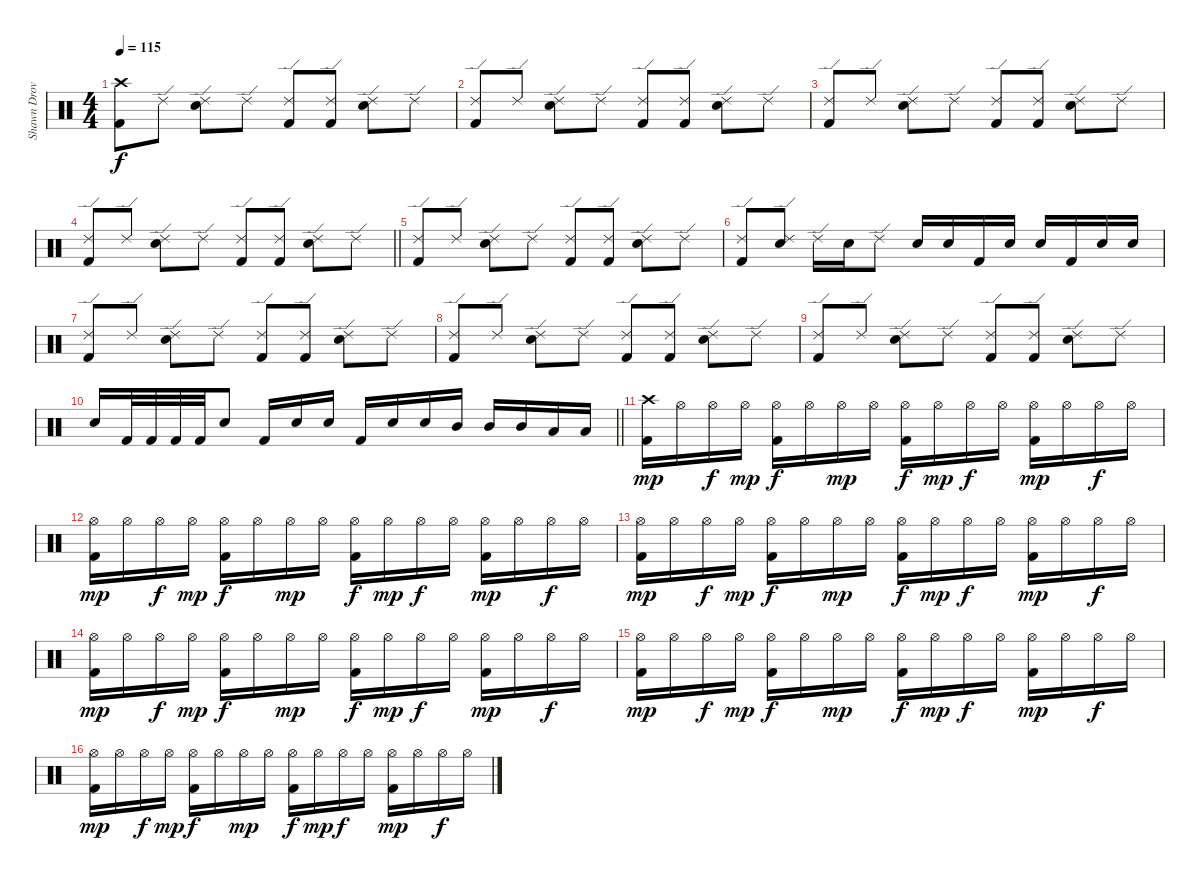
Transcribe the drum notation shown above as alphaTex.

\track ("Shawn Drover" "Shawn Drov") {instrument percussion}
\staff {score}
\articulation defaults
\ts (4 4)
\tempo 115
\clef neutral
\ks c
("Crash high (hit)" "Kick (hit) 2").8{dy f} "Ride (edge) 2".8 ("Ride (edge) 2" "Snare (hit) 2").8 "Ride (edge) 2".8 ("Ride (edge) 2" "Kick (hit) 2").8 ("Ride (edge) 2" "Kick (hit) 2").8 ("Ride (edge) 2" "Snare (hit) 2").8 "Ride (edge) 2".8 |
("Ride (edge) 2" "Kick (hit) 2").8 "Ride (edge) 2".8 ("Ride (edge) 2" "Snare (hit) 2").8 "Ride (edge) 2".8 ("Ride (edge) 2" "Kick (hit) 2").8 ("Ride (edge) 2" "Kick (hit) 2").8 ("Ride (edge) 2" "Snare (hit) 2").8 "Ride (edge) 2".8 |
("Ride (edge) 2" "Kick (hit) 2").8 "Ride (edge) 2".8 ("Ride (edge) 2" "Snare (hit) 2").8 "Ride (edge) 2".8 ("Ride (edge) 2" "Kick (hit) 2").8 ("Ride (edge) 2" "Kick (hit) 2").8 ("Ride (edge) 2" "Snare (hit) 2").8 "Ride (edge) 2".8 |
\barLineRight lightlight
("Ride (edge) 2" "Kick (hit) 2").8 "Ride (edge) 2".8 ("Ride (edge) 2" "Snare (hit) 2").8 "Ride (edge) 2".8 ("Ride (edge) 2" "Kick (hit) 2").8 ("Ride (edge) 2" "Kick (hit) 2").8 ("Ride (edge) 2" "Snare (hit) 2").8 "Ride (edge) 2".8 |
("Ride (edge) 2" "Kick (hit) 2").8 "Ride (edge) 2".8 ("Ride (edge) 2" "Snare (hit) 2").8 "Ride (edge) 2".8 ("Ride (edge) 2" "Kick (hit) 2").8 ("Ride (edge) 2" "Kick (hit) 2").8 ("Ride (edge) 2" "Snare (hit) 2").8 "Ride (edge) 2".8 |
("Ride (edge) 2" "Kick (hit) 2").8 ("Ride (edge) 2" "Snare (hit) 2").8 "Ride (edge) 2".16 "Snare (hit) 2".16 "Ride (edge) 2".8 "Snare (hit) 2".16 "Snare (hit) 2".16 "Kick (hit) 2".16 "Snare (hit) 2".16 "Snare (hit) 2".16 "Kick (hit) 2".16 "Snare (hit) 2".16 "Snare (hit) 2".16 |
("Ride (edge) 2" "Kick (hit) 2").8 "Ride (edge) 2".8 ("Ride (edge) 2" "Snare (hit) 2").8 "Ride (edge) 2".8 ("Ride (edge) 2" "Kick (hit) 2").8 ("Ride (edge) 2" "Kick (hit) 2").8 ("Ride (edge) 2" "Snare (hit) 2").8 "Ride (edge) 2".8 |
("Ride (edge) 2" "Kick (hit) 2").8 "Ride (edge) 2".8 ("Ride (edge) 2" "Snare (hit) 2").8 "Ride (edge) 2".8 ("Ride (edge) 2" "Kick (hit) 2").8 ("Ride (edge) 2" "Kick (hit) 2").8 ("Ride (edge) 2" "Snare (hit) 2").8 "Ride (edge) 2".8 |
("Ride (edge) 2" "Kick (hit) 2").8 "Ride (edge) 2".8 ("Ride (edge) 2" "Snare (hit) 2").8 "Ride (edge) 2".8 ("Ride (edge) 2" "Kick (hit) 2").8 ("Ride (edge) 2" "Kick (hit) 2").8 ("Ride (edge) 2" "Snare (hit) 2").8 "Ride (edge) 2".8 |
\barLineRight lightlight "Snare (hit) 2".16 "Kick (hit) 2".32 "Kick (hit) 2".32 "Kick (hit) 2".32 "Kick (hit) 2".32 "Snare (hit) 2".8 "Kick (hit) 2".16 "Snare (hit) 2".16 "Snare (hit) 2".16 "Kick (hit) 2".16 "Snare (hit) 2".16 "Snare (hit) 2".16 "Mid Tom (hit)".16 "Mid Tom (hit)".16 "Mid Tom (hit)".16 "Low Tom (hit)".16 "Low Tom (hit)".16
|
("Crash high (hit)" "Kick (hit) 2").16{dy mp} "Hi-Hat (open)".16 "Hi-Hat (open)".16{dy f} "Hi-Hat (open)".16{dy mp} ("Hi-Hat (open)" "Kick (hit) 2").16{dy f} "Hi-Hat (open)".16 "Hi-Hat (open)".16{dy mp} "Hi-Hat (open)".16 ("Hi-Hat (open)" "Kick (hit) 2").16{dy f} "Hi-Hat (open)".16{dy mp} "Hi-Hat (open)".16{dy f} "Hi-Hat (open)".16 ("Hi-Hat (open)" "Kick (hit) 2").16{dy mp} "Hi-Hat (open)".16 "Hi-Hat (open)".16{dy f} "Hi-Hat (open)".16 |
("Hi-Hat (open)" "Kick (hit) 2").16{dy mp} "Hi-Hat (open)".16 "Hi-Hat (open)".16{dy f} "Hi-Hat (open)".16{dy mp} ("Hi-Hat (open)" "Kick (hit) 2").16{dy f} "Hi-Hat (open)".16 "Hi-Hat (open)".16{dy mp} "Hi-Hat (open)".16 ("Hi-Hat (open)" "Kick (hit) 2").16{dy f} "Hi-Hat (open)".16{dy mp} "Hi-Hat (open)".16{dy f} "Hi-Hat (open)".16 ("Hi-Hat (open)" "Kick (hit) 2").16{dy mp} "Hi-Hat (open)".16 "Hi-Hat (open)".16{dy f} "Hi-Hat (open)".16 |
("Hi-Hat (open)" "Kick (hit) 2").16{dy mp} "Hi-Hat (open)".16 "Hi-Hat (open)".16{dy f} "Hi-Hat (open)".16{dy mp} ("Hi-Hat (open)" "Kick (hit) 2").16{dy f} "Hi-Hat (open)".16 "Hi-Hat (open)".16{dy mp} "Hi-Hat (open)".16 ("Hi-Hat (open)" "Kick (hit) 2").16{dy f} "Hi-Hat (open)".16{dy mp} "Hi-Hat (open)".16{dy f} "Hi-Hat (open)".16 ("Hi-Hat (open)" "Kick (hit) 2").16{dy mp} "Hi-Hat (open)".16 "Hi-Hat (open)".16{dy f} "Hi-Hat (open)".16 |
("Hi-Hat (open)" "Kick (hit) 2").16{dy mp} "Hi-Hat (open)".16 "Hi-Hat (open)".16{dy f} "Hi-Hat (open)".16{dy mp} ("Hi-Hat (open)" "Kick (hit) 2").16{dy f} "Hi-Hat (open)".16 "Hi-Hat (open)".16{dy mp} "Hi-Hat (open)".16 ("Hi-Hat (open)" "Kick (hit) 2").16{dy f} "Hi-Hat (open)".16{dy mp} "Hi-Hat (open)".16{dy f} "Hi-Hat (open)".16 ("Hi-Hat (open)" "Kick (hit) 2").16{dy mp} "Hi-Hat (open)".16 "Hi-Hat (open)".16{dy f} "Hi-Hat (open)".16 |
("Hi-Hat (open)" "Kick (hit) 2").16{dy mp} "Hi-Hat (open)".16 "Hi-Hat (open)".16{dy f} "Hi-Hat (open)".16{dy mp} ("Hi-Hat (open)" "Kick (hit) 2").16{dy f} "Hi-Hat (open)".16 "Hi-Hat (open)".16{dy mp} "Hi-Hat (open)".16 ("Hi-Hat (open)" "Kick (hit) 2").16{dy f} "Hi-Hat (open)".16{dy mp} "Hi-Hat (open)".16{dy f} "Hi-Hat (open)".16 ("Hi-Hat (open)" "Kick (hit) 2").16{dy mp} "Hi-Hat (open)".16 "Hi-Hat (open)".16{dy f} "Hi-Hat (open)".16 |
("Hi-Hat (open)" "Kick (hit) 2").16{dy mp} "Hi-Hat (open)".16 "Hi-Hat (open)".16{dy f} "Hi-Hat (open)".16{dy mp} ("Hi-Hat (open)" "Kick (hit) 2").16{dy f} "Hi-Hat (open)".16 "Hi-Hat (open)".16{dy mp} "Hi-Hat (open)".16 ("Hi-Hat (open)" "Kick (hit) 2").16{dy f} "Hi-Hat (open)".16{dy mp} "Hi-Hat (open)".16{dy f} "Hi-Hat (open)".16 ("Hi-Hat (open)" "Kick (hit) 2").16{dy mp} "Hi-Hat (open)".16 "Hi-Hat (open)".16{dy f} "Hi-Hat (open)".16
